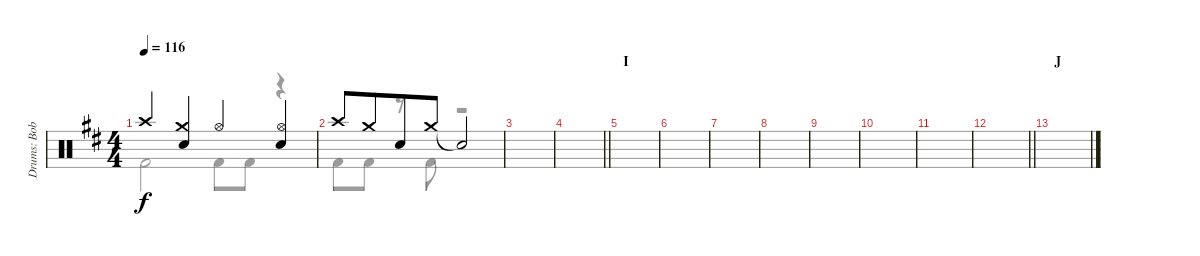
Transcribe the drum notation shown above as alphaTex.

\track ("Drums: Bobby" "Drums: Bob") {instrument percussion}
\staff {score}
\articulation defaults
\voice
\ts (4 4)
\tempo 116
\clef neutral
\ks d "Crash high (hit)".4{dy f}
("Crash medium (hit)" "Snare (hit) 2").4 "Hi-Hat (open)".4 ("Hi-Hat (open)" "Snare (hit) 2").4 |
"Crash high (hit)".8 "Crash medium (hit)".8{beam merge} "Snare (hit) 2".8 "Crash medium (hit)".8 "Snare (hit)"{t}.2 |
|
\barLineRight lightlight
|
\section ("" "I")
|
|
|
|
|
|
|
\barLineRight lightlight
|
\section ("" "J")
|
|
|
\voice
\clef neutral
\ottava regular
\simile none
\ks d "Kick (hit) 2".2{dy f} "Kick (hit) 2".8 "Kick (hit) 2".8
r.4 |
"Kick (hit) 2".8 "Kick (hit) 2".8 r.8 "Kick (hit) 2".8 r.2 |
|
\barLineRight lightlight
|
|
|
|
|
|
|
|
\barLineRight lightlight
|
|
|
|
